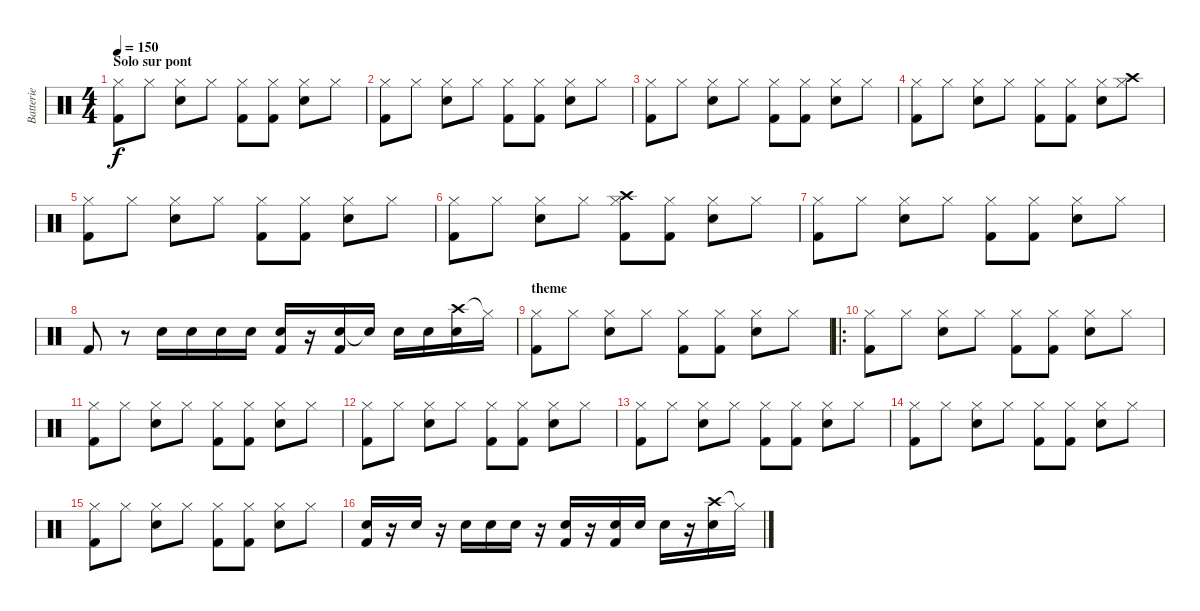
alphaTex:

\track ("Batterie" "Batterie") {instrument percussion}
\staff {score}
\articulation defaults
\ts (4 4)
\section ("" "Solo sur pont")
\tempo 150
\clef neutral
\ks c
("Hi-Hat (closed)" "Kick (hit) 2").8{dy f} "Hi-Hat (closed)".8 ("Hi-Hat (closed)" "Electric Snare (hit)").8 "Hi-Hat (closed)".8 ("Hi-Hat (closed)" "Kick (hit) 2").8 ("Hi-Hat (closed)" "Kick (hit) 2").8 ("Hi-Hat (closed)" "Electric Snare (hit)").8 "Hi-Hat (closed)".8 |
("Hi-Hat (closed)" "Kick (hit) 2").8 "Hi-Hat (closed)".8 ("Hi-Hat (closed)" "Electric Snare (hit)").8 "Hi-Hat (closed)".8 ("Hi-Hat (closed)" "Kick (hit) 2").8 ("Hi-Hat (closed)" "Kick (hit) 2").8 ("Hi-Hat (closed)" "Electric Snare (hit)").8 "Hi-Hat (closed)".8 |
("Hi-Hat (closed)" "Kick (hit) 2").8 "Hi-Hat (closed)".8 ("Hi-Hat (closed)" "Electric Snare (hit)").8 "Hi-Hat (closed)".8 ("Hi-Hat (closed)" "Kick (hit) 2").8 ("Hi-Hat (closed)" "Kick (hit) 2").8 ("Hi-Hat (closed)" "Electric Snare (hit)").8 "Hi-Hat (closed)".8 |
("Hi-Hat (closed)" "Kick (hit) 2").8 "Hi-Hat (closed)".8 ("Hi-Hat (closed)" "Electric Snare (hit)").8 "Hi-Hat (closed)".8 ("Hi-Hat (closed)" "Kick (hit) 2").8 ("Hi-Hat (closed)" "Kick (hit) 2").8 ("Hi-Hat (closed)" "Electric Snare (hit)").8 ("Crash high (hit)" "Hi-Hat (closed)").8 |
("Hi-Hat (closed)" "Kick (hit) 2").8 "Hi-Hat (closed)".8 ("Hi-Hat (closed)" "Electric Snare (hit)").8 "Hi-Hat (closed)".8 ("Hi-Hat (closed)" "Kick (hit) 2").8 ("Hi-Hat (closed)" "Kick (hit) 2").8 ("Hi-Hat (closed)" "Electric Snare (hit)").8 "Hi-Hat (closed)".8 |
("Hi-Hat (closed)" "Kick (hit) 2").8 "Hi-Hat (closed)".8 ("Hi-Hat (closed)" "Electric Snare (hit)").8 "Hi-Hat (closed)".8 ("Crash high (hit)" "Hi-Hat (closed)" "Kick (hit) 2").8 ("Hi-Hat (closed)" "Kick (hit) 2").8 ("Hi-Hat (closed)" "Electric Snare (hit)").8 "Hi-Hat (closed)".8 |
("Hi-Hat (closed)" "Kick (hit) 2").8 "Hi-Hat (closed)".8 ("Hi-Hat (closed)" "Electric Snare (hit)").8 "Hi-Hat (closed)".8 ("Hi-Hat (closed)" "Kick (hit) 2").8 ("Hi-Hat (closed)" "Kick (hit) 2").8 ("Hi-Hat (closed)" "Snare (hit) 2").8 "Hi-Hat (closed)".8 |
"Kick (hit) 2".8 r.8 "Electric Snare (hit)".16 "Electric Snare (hit)".16 "Electric Snare (hit)".16 "Electric Snare (hit)".16 ("Electric Snare (hit)" "Kick (hit) 2").16 r.16 ("Electric Snare (hit)" "Kick (hit) 2").16 "Snare (hit) 2"{t}.16 "Electric Snare (hit)".16 "Electric Snare (hit)".16 ("Crash high (hit)" "Electric Snare (hit)").16 "Hi-Hat (closed)"{t}.16 |
\section ("" "theme")
("Hi-Hat (closed)" "Kick (hit) 2").8 "Hi-Hat (closed)".8 ("Hi-Hat (closed)" "Electric Snare (hit)").8 "Hi-Hat (closed)".8 ("Hi-Hat (closed)" "Kick (hit) 2").8 ("Hi-Hat (closed)" "Kick (hit) 2").8 ("Hi-Hat (closed)" "Electric Snare (hit)").8 "Hi-Hat (closed)".8 |
\ro
("Hi-Hat (closed)" "Kick (hit) 2").8 "Hi-Hat (closed)".8 ("Hi-Hat (closed)" "Electric Snare (hit)").8 "Hi-Hat (closed)".8 ("Hi-Hat (closed)" "Kick (hit) 2").8 ("Hi-Hat (closed)" "Kick (hit) 2").8 ("Hi-Hat (closed)" "Electric Snare (hit)").8 "Hi-Hat (closed)".8 |
("Hi-Hat (closed)" "Kick (hit) 2").8 "Hi-Hat (closed)".8 ("Hi-Hat (closed)" "Electric Snare (hit)").8 "Hi-Hat (closed)".8 ("Hi-Hat (closed)" "Kick (hit) 2").8 ("Hi-Hat (closed)" "Kick (hit) 2").8 ("Hi-Hat (closed)" "Electric Snare (hit)").8 "Hi-Hat (closed)".8 |
("Hi-Hat (closed)" "Kick (hit) 2").8 "Hi-Hat (closed)".8 ("Hi-Hat (closed)" "Electric Snare (hit)").8 "Hi-Hat (closed)".8 ("Hi-Hat (closed)" "Kick (hit) 2").8 ("Hi-Hat (closed)" "Kick (hit) 2").8 ("Hi-Hat (closed)" "Electric Snare (hit)").8 "Hi-Hat (closed)".8 |
("Hi-Hat (closed)" "Kick (hit) 2").8 "Hi-Hat (closed)".8 ("Hi-Hat (closed)" "Electric Snare (hit)").8 "Hi-Hat (closed)".8 ("Hi-Hat (closed)" "Kick (hit) 2").8 ("Hi-Hat (closed)" "Kick (hit) 2").8 ("Hi-Hat (closed)" "Electric Snare (hit)").8 "Hi-Hat (closed)".8 |
("Hi-Hat (closed)" "Kick (hit) 2").8 "Hi-Hat (closed)".8 ("Hi-Hat (closed)" "Electric Snare (hit)").8 "Hi-Hat (closed)".8 ("Hi-Hat (closed)" "Kick (hit) 2").8 ("Hi-Hat (closed)" "Kick (hit) 2").8 ("Hi-Hat (closed)" "Electric Snare (hit)").8 "Hi-Hat (closed)".8 |
("Hi-Hat (closed)" "Kick (hit) 2").8 "Hi-Hat (closed)".8 ("Hi-Hat (closed)" "Electric Snare (hit)").8 "Hi-Hat (closed)".8 ("Hi-Hat (closed)" "Kick (hit) 2").8 ("Hi-Hat (closed)" "Kick (hit) 2").8 ("Hi-Hat (closed)" "Electric Snare (hit)").8 "Hi-Hat (closed)".8 |
("Electric Snare (hit)" "Kick (hit) 2").16 r.16 "Electric Snare (hit)".16 r.16 "Electric Snare (hit)".16 "Electric Snare (hit)".16 "Electric Snare (hit)".16 r.16 ("Electric Snare (hit)" "Kick (hit) 2").16 r.16 ("Electric Snare (hit)" "Kick (hit) 2").16 "Electric Snare (hit)".16 "Electric Snare (hit)".16 r.16 ("Crash high (hit)" "Electric Snare (hit)").16 "Hi-Hat (closed)"{t}.16
